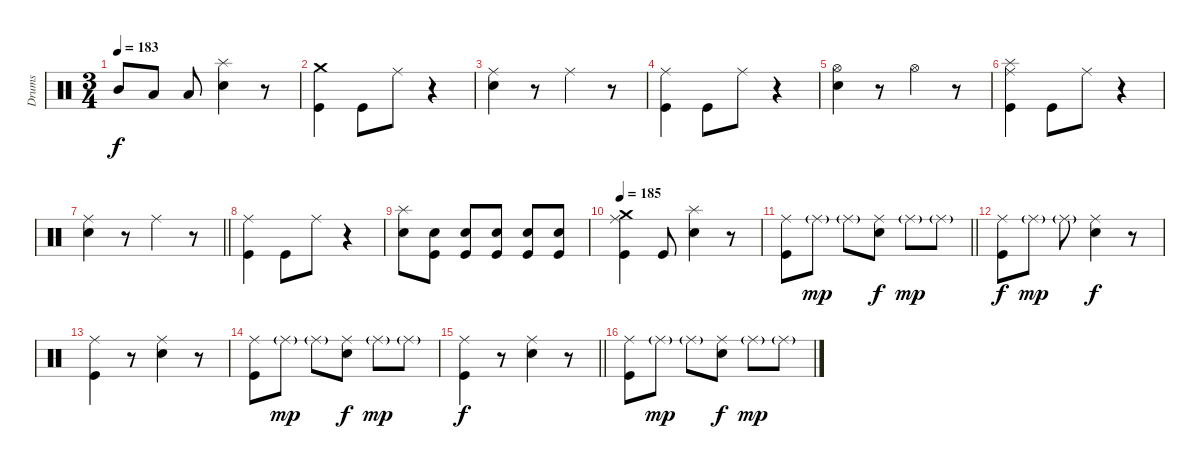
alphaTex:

\track ("Drums" "Drums") {instrument percussion}
\staff {score}
\articulation defaults
\ts (3 4)
\tempo 183
\clef neutral
\ks c "Mid Tom (hit)".8{dy f} "Low Tom (hit)".8 "Low Tom (hit)".8
("Splash (hit)" "Snare (hit) 2").4 r.8 |
("Crash medium (hit)" "Kick (hit)").4 "Kick (hit)".8 "Ride (middle)".8 r.4 |
("Ride (middle)" "Snare (hit) 2").4 r.8 "Ride (middle)".4 r.8 |
("Ride (middle)" "Kick (hit)").4 "Kick (hit)".8 "Ride (middle)".8 r.4 |
("Hi-Hat (open)" "Snare (hit) 2").4 r.8 "Hi-Hat (open)".4 r.8 |
("Splash (hit)" "Ride (middle)" "Kick (hit)").4 "Kick (hit)".8 "Ride (middle)".8 r.4 |
\barLineRight lightlight
("Ride (middle)" "Snare (hit) 2").4 r.8 "Ride (middle)".4 r.8 |
("Ride (middle)" "Kick (hit)").4 "Kick (hit)".8 "Ride (middle)".8 r.4 |
("Splash (hit)" "Snare (hit) 2").8 ("Snare (hit) 2" "Kick (hit)").8 ("Snare (hit) 2" "Kick (hit)").8 ("Snare (hit) 2" "Kick (hit)").8 ("Snare (hit) 2" "Kick (hit)").8 ("Snare (hit) 2" "Kick (hit)").8 |
\tempo 185
("Crash medium (hit)" "Ride (middle)" "Kick (hit)").4 "Kick (hit)".8 ("Splash (hit)" "Snare (hit) 2").4 r.8 |
\barLineRight lightlight
("Ride (middle)" "Kick (hit)").8 "Ride (middle)"{g}.8{dy mp} "Ride (middle)"{g}.8 ("Ride (middle)" "Snare (hit) 2").8{dy f} "Ride (middle)"{g}.8{dy mp} "Ride (middle)"{g}.8 |
("Ride (middle)" "Kick (hit)").8{dy f} "Ride (middle)"{g}.8{dy mp} "Ride (middle)"{g}.8 ("Ride (middle)" "Snare (hit) 2").4{dy f} r.8 |
("Ride (middle)" "Kick (hit)").4 r.8 ("Ride (middle)" "Snare (hit) 2").4 r.8 |
("Ride (middle)" "Kick (hit)").8 "Ride (middle)"{g}.8{dy mp} "Ride (middle)"{g}.8 ("Ride (middle)" "Snare (hit) 2").8{dy f} "Ride (middle)"{g}.8{dy mp} "Ride (middle)"{g}.8 |
\barLineRight lightlight
("Ride (middle)" "Kick (hit)").4{dy f} r.8 ("Ride (middle)" "Snare (hit) 2").4 r.8 |
("Ride (middle)" "Kick (hit)").8 "Ride (middle)"{g}.8{dy mp} "Ride (middle)"{g}.8 ("Ride (middle)" "Snare (hit) 2").8{dy f} "Ride (middle)"{g}.8{dy mp} "Ride (middle)"{g}.8
